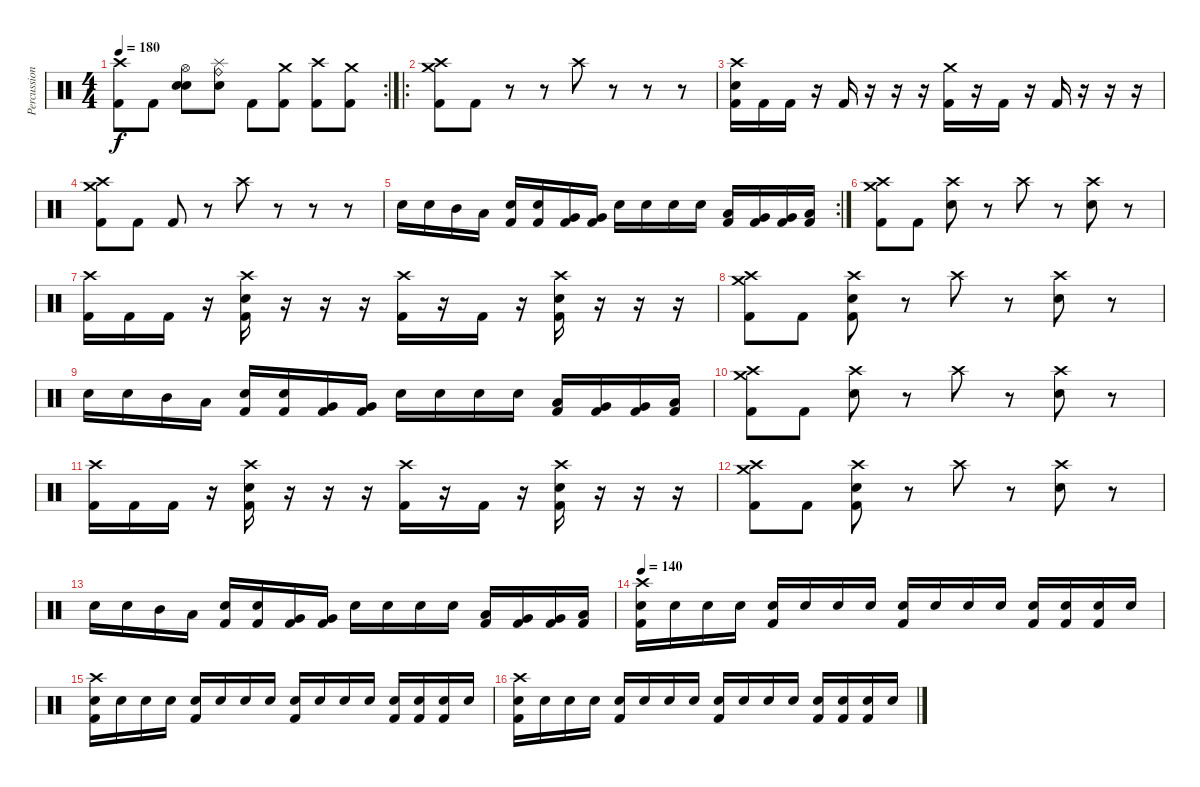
\track ("Percussion" "Percussion") {instrument percussion}
\staff {score}
\articulation defaults
\rc 2
\ts (4 4)
\tempo 180
\clef neutral
\ks c
("Crash high (hit)" "Kick (hit) 2").8{dy f} "Kick (hit) 2".8 ("Hi-Hat (open)" "Electric Snare (hit)" "Snare (hit)").8 ("Splash (hit)" "Ride (bell)" "Snare (hit)").8 "Kick (hit) 2".8 ("Crash medium (hit)" "Kick (hit) 2").8 ("Crash high (hit)" "Kick (hit) 2").8 ("Crash medium (hit)" "Kick (hit) 2").8 |
\ro
("Crash high (hit)" "Crash medium (hit)" "Kick (hit) 2").8 "Kick (hit) 2".8 r.8 r.8 "Crash high (hit)".8 r.8 r.8 r.8 |
("Crash high (hit)" "Electric Snare (hit)" "Kick (hit) 2").16 "Kick (hit) 2".16 "Kick (hit) 2".16 r.16 "Kick (hit) 2".16 r.16 r.16 r.16 ("Crash medium (hit)" "Kick (hit) 2").16 r.16 "Kick (hit) 2".16 r.16 "Kick (hit) 2".16 r.16 r.16 r.16 |
("Crash high (hit)" "Crash medium (hit)" "Kick (hit) 2").8 "Kick (hit) 2".8 "Kick (hit) 2".8 r.8 "Crash high (hit)".8 r.8 r.8 r.8 |
\rc 2 "Electric Snare (hit)".16 "Electric Snare (hit)".16 "Mid Tom (hit)".16 "Low Tom (hit)".16
("Electric Snare (hit)" "Kick (hit) 2").16 ("Electric Snare (hit)" "Kick (hit) 2").16 ("Very Low Tom (hit)" "Kick (hit) 2").16 ("Very Low Tom (hit)" "Kick (hit) 2").16 "Electric Snare (hit)".16 "Electric Snare (hit)".16 "Electric Snare (hit)".16 "Electric Snare (hit)".16 ("Low Tom (hit)" "Kick (hit) 2").16 ("Very Low Tom (hit)" "Kick (hit) 2").16 ("Very Low Tom (hit)" "Kick (hit) 2").16 ("Low Floor Tom (hit)" "Kick (hit) 2").16 |
("Crash high (hit)" "Crash medium (hit)" "Kick (hit) 2").8 "Kick (hit) 2".8 ("Crash high (hit)" "Electric Snare (hit)").8 r.8 "Crash high (hit)".8 r.8 ("Crash high (hit)" "Electric Snare (hit)").8 r.8 |
("Crash high (hit)" "Kick (hit) 2").16 "Kick (hit) 2".16 "Kick (hit) 2".16 r.16 ("Crash high (hit)" "Electric Snare (hit)" "Kick (hit) 2").16 r.16 r.16 r.16 ("Crash high (hit)" "Kick (hit) 2").16 r.16 "Kick (hit) 2".16 r.16 ("Crash high (hit)" "Electric Snare (hit)" "Kick (hit) 2").16 r.16 r.16 r.16 |
("Crash high (hit)" "Crash medium (hit)" "Kick (hit) 2").8 "Kick (hit) 2".8 ("Crash high (hit)" "Electric Snare (hit)" "Kick (hit) 2").8 r.8 "Crash high (hit)".8 r.8 ("Crash high (hit)" "Electric Snare (hit)").8 r.8 |
"Electric Snare (hit)".16 "Electric Snare (hit)".16 "Mid Tom (hit)".16 "Low Tom (hit)".16 ("Electric Snare (hit)" "Kick (hit) 2").16 ("Electric Snare (hit)" "Kick (hit) 2").16 ("Very Low Tom (hit)" "Kick (hit) 2").16 ("Very Low Tom (hit)" "Kick (hit) 2").16 "Electric Snare (hit)".16 "Electric Snare (hit)".16 "Electric Snare (hit)".16 "Electric Snare (hit)".16 ("Low Tom (hit)" "Kick (hit) 2").16 ("Very Low Tom (hit)" "Kick (hit) 2").16 ("Very Low Tom (hit)" "Kick (hit) 2").16 ("Low Floor Tom (hit)" "Kick (hit) 2").16 |
("Crash high (hit)" "Crash medium (hit)" "Kick (hit) 2").8 "Kick (hit) 2".8 ("Crash high (hit)" "Electric Snare (hit)").8 r.8 "Crash high (hit)".8 r.8 ("Crash high (hit)" "Electric Snare (hit)").8 r.8 |
("Crash high (hit)" "Kick (hit) 2").16 "Kick (hit) 2".16 "Kick (hit) 2".16 r.16 ("Crash high (hit)" "Electric Snare (hit)" "Kick (hit) 2").16 r.16 r.16 r.16 ("Crash high (hit)" "Kick (hit) 2").16 r.16 "Kick (hit) 2".16 r.16 ("Crash high (hit)" "Electric Snare (hit)" "Kick (hit) 2").16 r.16 r.16 r.16 |
("Crash high (hit)" "Crash medium (hit)" "Kick (hit) 2").8 "Kick (hit) 2".8 ("Crash high (hit)" "Electric Snare (hit)" "Kick (hit) 2").8 r.8 "Crash high (hit)".8 r.8 ("Crash high (hit)" "Electric Snare (hit)").8 r.8 |
"Electric Snare (hit)".16 "Electric Snare (hit)".16 "Mid Tom (hit)".16 "Low Tom (hit)".16 ("Electric Snare (hit)" "Kick (hit) 2").16 ("Electric Snare (hit)" "Kick (hit) 2").16 ("Very Low Tom (hit)" "Kick (hit) 2").16 ("Very Low Tom (hit)" "Kick (hit) 2").16 "Electric Snare (hit)".16 "Electric Snare (hit)".16 "Electric Snare (hit)".16 "Electric Snare (hit)".16 ("Low Tom (hit)" "Kick (hit) 2").16 ("Very Low Tom (hit)" "Kick (hit) 2").16 ("Very Low Tom (hit)" "Kick (hit) 2").16 ("Low Floor Tom (hit)" "Kick (hit) 2").16 |
\tempo 140
("Crash high (hit)" "Electric Snare (hit)" "Kick (hit) 2").16 "Electric Snare (hit)".16 "Electric Snare (hit)".16 "Electric Snare (hit)".16 ("Electric Snare (hit)" "Kick (hit) 2").16 "Electric Snare (hit)".16 "Electric Snare (hit)".16 "Electric Snare (hit)".16 ("Electric Snare (hit)" "Kick (hit) 2").16 "Electric Snare (hit)".16 "Electric Snare (hit)".16 "Electric Snare (hit)".16 ("Electric Snare (hit)" "Kick (hit) 2").16 ("Electric Snare (hit)" "Kick (hit) 2").16 ("Electric Snare (hit)" "Kick (hit) 2").16 "Electric Snare (hit)".16 |
("Crash high (hit)" "Electric Snare (hit)" "Kick (hit) 2").16 "Electric Snare (hit)".16 "Electric Snare (hit)".16 "Electric Snare (hit)".16 ("Electric Snare (hit)" "Kick (hit) 2").16 "Electric Snare (hit)".16 "Electric Snare (hit)".16 "Electric Snare (hit)".16 ("Electric Snare (hit)" "Kick (hit) 2").16 "Electric Snare (hit)".16 "Electric Snare (hit)".16 "Electric Snare (hit)".16 ("Electric Snare (hit)" "Kick (hit) 2").16 ("Electric Snare (hit)" "Kick (hit) 2").16 ("Electric Snare (hit)" "Kick (hit) 2").16 "Electric Snare (hit)".16 |
("Crash high (hit)" "Electric Snare (hit)" "Kick (hit) 2").16 "Electric Snare (hit)".16 "Electric Snare (hit)".16 "Electric Snare (hit)".16 ("Electric Snare (hit)" "Kick (hit) 2").16 "Electric Snare (hit)".16 "Electric Snare (hit)".16 "Electric Snare (hit)".16 ("Electric Snare (hit)" "Kick (hit) 2").16 "Electric Snare (hit)".16 "Electric Snare (hit)".16 "Electric Snare (hit)".16 ("Electric Snare (hit)" "Kick (hit) 2").16 ("Electric Snare (hit)" "Kick (hit) 2").16 ("Electric Snare (hit)" "Kick (hit) 2").16 "Electric Snare (hit)".16
